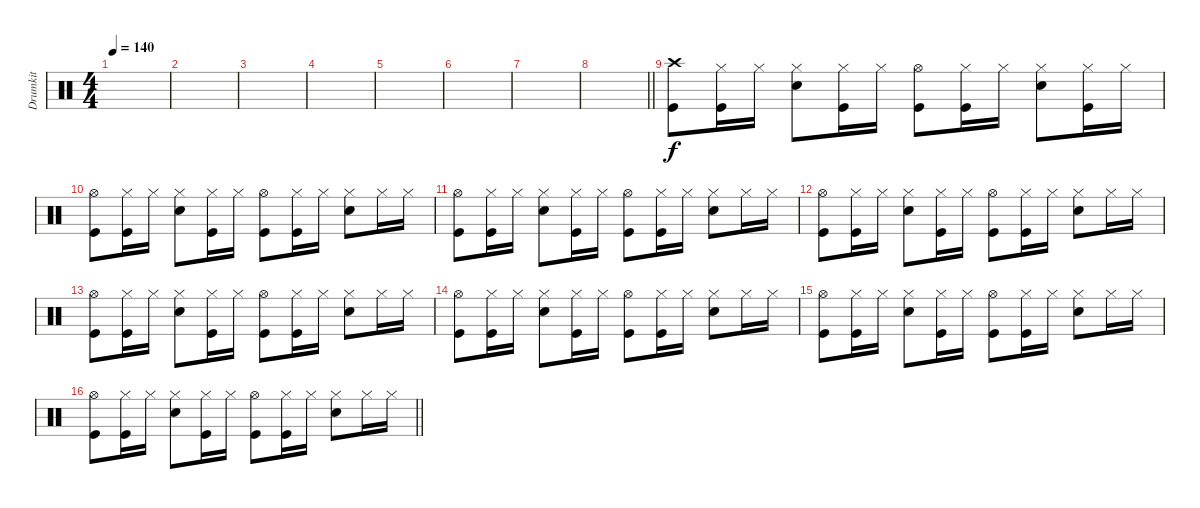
\track ("Drumkit" "Drumkit") {instrument percussion}
\staff {score}
\articulation defaults
\ts (4 4)
\tempo 140
\clef neutral
\ks c
|
|
|
|
|
|
|
\barLineRight lightlight
|
("Crash high (hit)" "Kick (hit)").8 ("Hi-Hat (closed)" "Kick (hit)").16 "Hi-Hat (closed)".16 ("Snare (hit) 2" "Hi-Hat (closed)").8 ("Hi-Hat (closed)" "Kick (hit)").16 "Hi-Hat (closed)".16 ("Hi-Hat (open)" "Kick (hit)").8 ("Hi-Hat (closed)" "Kick (hit)").16 "Hi-Hat (closed)".16 ("Hi-Hat (closed)" "Snare (hit) 2").8 ("Hi-Hat (closed)" "Kick (hit)").16 "Hi-Hat (closed)".16 |
("Kick (hit)" "Hi-Hat (open)").8 ("Hi-Hat (closed)" "Kick (hit)").16 "Hi-Hat (closed)".16 ("Hi-Hat (closed)" "Snare (hit) 2").8 ("Hi-Hat (closed)" "Kick (hit)").16 "Hi-Hat (closed)".16 ("Hi-Hat (open)" "Kick (hit)").8 ("Hi-Hat (closed)" "Kick (hit)").16 "Hi-Hat (closed)".16 ("Hi-Hat (closed)" "Snare (hit) 2").8 "Hi-Hat (closed)".16 "Hi-Hat (closed)".16 |
("Kick (hit)" "Hi-Hat (open)").8 ("Hi-Hat (closed)" "Kick (hit)").16 "Hi-Hat (closed)".16 ("Hi-Hat (closed)" "Snare (hit) 2").8 ("Hi-Hat (closed)" "Kick (hit)").16 "Hi-Hat (closed)".16 ("Hi-Hat (open)" "Kick (hit)").8 ("Hi-Hat (closed)" "Kick (hit)").16 "Hi-Hat (closed)".16 ("Hi-Hat (closed)" "Snare (hit) 2").8 "Hi-Hat (closed)".16 "Hi-Hat (closed)".16 |
("Kick (hit)" "Hi-Hat (open)").8 ("Hi-Hat (closed)" "Kick (hit)").16 "Hi-Hat (closed)".16 ("Hi-Hat (closed)" "Snare (hit) 2").8 ("Hi-Hat (closed)" "Kick (hit)").16 "Hi-Hat (closed)".16 ("Hi-Hat (open)" "Kick (hit)").8 ("Hi-Hat (closed)" "Kick (hit)").16 "Hi-Hat (closed)".16 ("Hi-Hat (closed)" "Snare (hit) 2").8 "Hi-Hat (closed)".16 "Hi-Hat (closed)".16 |
("Kick (hit)" "Hi-Hat (open)").8 ("Hi-Hat (closed)" "Kick (hit)").16 "Hi-Hat (closed)".16 ("Hi-Hat (closed)" "Snare (hit) 2").8 ("Hi-Hat (closed)" "Kick (hit)").16 "Hi-Hat (closed)".16 ("Hi-Hat (open)" "Kick (hit)").8 ("Hi-Hat (closed)" "Kick (hit)").16 "Hi-Hat (closed)".16 ("Hi-Hat (closed)" "Snare (hit) 2").8 "Hi-Hat (closed)".16 "Hi-Hat (closed)".16 |
("Kick (hit)" "Hi-Hat (open)").8 ("Hi-Hat (closed)" "Kick (hit)").16 "Hi-Hat (closed)".16 ("Hi-Hat (closed)" "Snare (hit) 2").8 ("Hi-Hat (closed)" "Kick (hit)").16 "Hi-Hat (closed)".16 ("Hi-Hat (open)" "Kick (hit)").8 ("Hi-Hat (closed)" "Kick (hit)").16 "Hi-Hat (closed)".16 ("Hi-Hat (closed)" "Snare (hit) 2").8 "Hi-Hat (closed)".16 "Hi-Hat (closed)".16 |
("Kick (hit)" "Hi-Hat (open)").8 ("Hi-Hat (closed)" "Kick (hit)").16 "Hi-Hat (closed)".16 ("Hi-Hat (closed)" "Snare (hit) 2").8 ("Hi-Hat (closed)" "Kick (hit)").16 "Hi-Hat (closed)".16 ("Hi-Hat (open)" "Kick (hit)").8 ("Hi-Hat (closed)" "Kick (hit)").16 "Hi-Hat (closed)".16 ("Hi-Hat (closed)" "Snare (hit) 2").8 "Hi-Hat (closed)".16 "Hi-Hat (closed)".16 |
\barLineRight lightlight
("Kick (hit)" "Hi-Hat (open)").8 ("Hi-Hat (closed)" "Kick (hit)").16 "Hi-Hat (closed)".16 ("Hi-Hat (closed)" "Snare (hit) 2").8 ("Hi-Hat (closed)" "Kick (hit)").16 "Hi-Hat (closed)".16 ("Hi-Hat (open)" "Kick (hit)").8 ("Hi-Hat (closed)" "Kick (hit)").16 "Hi-Hat (closed)".16 ("Hi-Hat (closed)" "Snare (hit) 2").8 "Hi-Hat (closed)".16 "Hi-Hat (closed)".16
